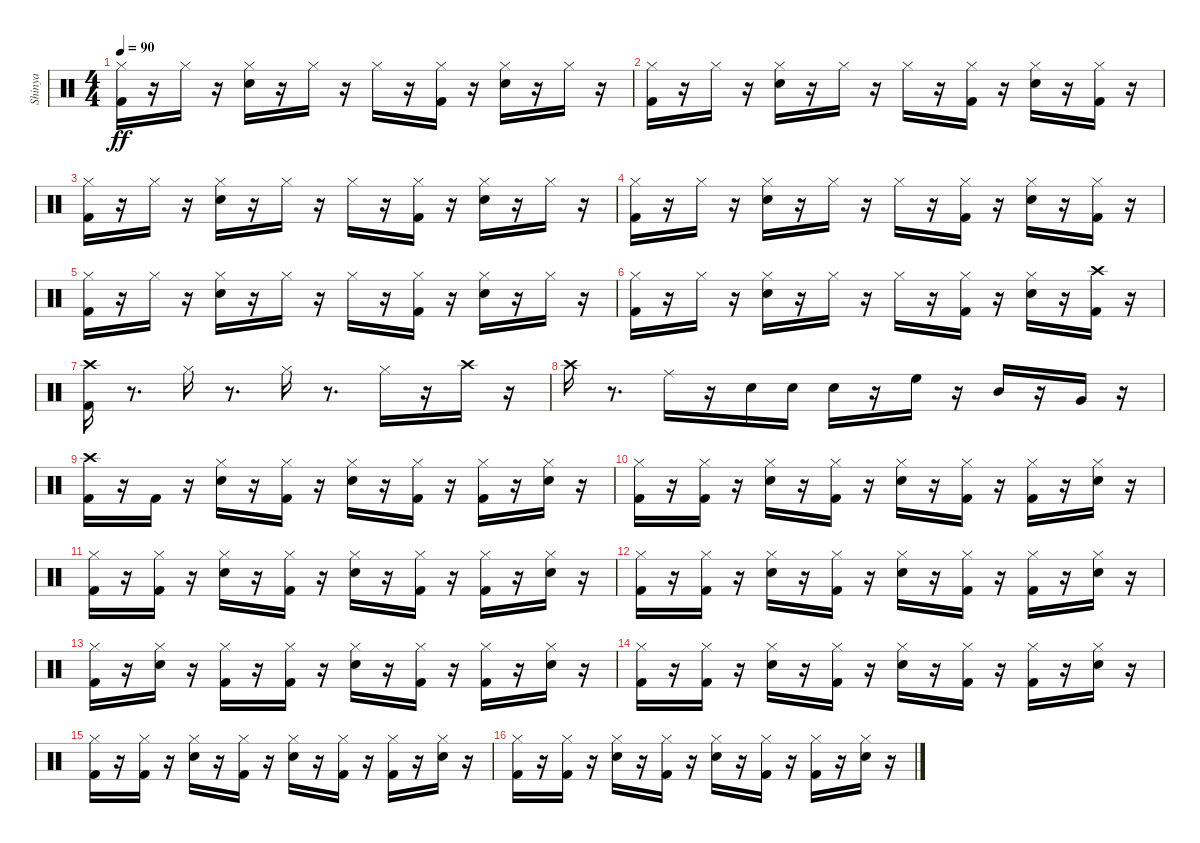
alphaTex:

\track ("Shinya" "Shinya") {instrument percussion}
\staff {score}
\articulation defaults
\ts (4 4)
\tempo 90
\clef neutral
\ks c
("Hi-Hat (closed)" "Kick (hit) 2").16{dy ff} r.16 "Hi-Hat (closed)".16 r.16 ("Snare (hit) 2" "Hi-Hat (closed)").16 r.16 "Hi-Hat (closed)".16 r.16 "Hi-Hat (closed)".16 r.16 ("Hi-Hat (closed)" "Kick (hit) 2").16 r.16 ("Snare (hit) 2" "Hi-Hat (closed)").16 r.16 "Hi-Hat (closed)".16 r.16 |
("Hi-Hat (closed)" "Kick (hit) 2").16 r.16 "Hi-Hat (closed)".16 r.16 ("Snare (hit) 2" "Hi-Hat (closed)").16 r.16 "Hi-Hat (closed)".16 r.16 "Hi-Hat (closed)".16 r.16 ("Hi-Hat (closed)" "Kick (hit) 2").16 r.16 ("Snare (hit) 2" "Hi-Hat (closed)").16 r.16 ("Hi-Hat (closed)" "Kick (hit) 2").16 r.16 |
("Hi-Hat (closed)" "Kick (hit) 2").16 r.16 "Hi-Hat (closed)".16 r.16 ("Snare (hit) 2" "Hi-Hat (closed)").16 r.16 "Hi-Hat (closed)".16 r.16 "Hi-Hat (closed)".16 r.16 ("Hi-Hat (closed)" "Kick (hit) 2").16 r.16 ("Snare (hit) 2" "Hi-Hat (closed)").16 r.16 "Hi-Hat (closed)".16 r.16 |
("Hi-Hat (closed)" "Kick (hit) 2").16 r.16 "Hi-Hat (closed)".16 r.16 ("Snare (hit) 2" "Hi-Hat (closed)").16 r.16 "Hi-Hat (closed)".16 r.16 "Hi-Hat (closed)".16 r.16 ("Hi-Hat (closed)" "Kick (hit) 2").16 r.16 ("Snare (hit) 2" "Hi-Hat (closed)").16 r.16 ("Hi-Hat (closed)" "Kick (hit) 2").16 r.16 |
("Hi-Hat (closed)" "Kick (hit) 2").16 r.16 "Hi-Hat (closed)".16 r.16 ("Snare (hit) 2" "Hi-Hat (closed)").16 r.16 "Hi-Hat (closed)".16 r.16 "Hi-Hat (closed)".16 r.16 ("Hi-Hat (closed)" "Kick (hit) 2").16 r.16 ("Snare (hit) 2" "Hi-Hat (closed)").16 r.16 "Hi-Hat (closed)".16 r.16 |
("Hi-Hat (closed)" "Kick (hit) 2").16 r.16 "Hi-Hat (closed)".16 r.16 ("Snare (hit) 2" "Hi-Hat (closed)").16 r.16 "Hi-Hat (closed)".16 r.16 "Hi-Hat (closed)".16 r.16 ("Hi-Hat (closed)" "Kick (hit) 2").16 r.16 ("Snare (hit) 2" "Hi-Hat (closed)").16 r.16 ("Crash high (hit)" "Kick (hit) 2").16 r.16 |
("Crash high (hit)" "Kick (hit) 2").16 r.8{d} "Hi-Hat (closed)".16 r.8{d} "Hi-Hat (closed)".16 r.8{d} "Hi-Hat (closed)".16 r.16 "Crash high (hit)".16 r.16 |
"Crash high (hit)".16 r.8{d} "Ride (middle)".16 r.16 "Snare (hit) 2".16 "Snare (hit) 2".16 "Snare (hit) 2".16 r.16 "High Floor Tom (hit)".16 r.16 "Mid Tom (hit)".16 r.16 "Very Low Tom (hit)".16 r.16 |
("Crash high (hit)" "Kick (hit) 2").16 r.16 "Kick (hit) 2".16 r.16 ("Snare (hit) 2" "Hi-Hat (closed)").16 r.16 ("Hi-Hat (closed)" "Kick (hit) 2").16 r.16 ("Snare (hit) 2" "Hi-Hat (closed)").16 r.16 ("Hi-Hat (closed)" "Kick (hit) 2").16 r.16 ("Hi-Hat (closed)" "Kick (hit) 2").16 r.16 ("Snare (hit) 2" "Hi-Hat (closed)").16 r.16 |
("Hi-Hat (closed)" "Kick (hit) 2").16 r.16 ("Hi-Hat (closed)" "Kick (hit) 2").16 r.16 ("Snare (hit) 2" "Hi-Hat (closed)").16 r.16 ("Hi-Hat (closed)" "Kick (hit) 2").16 r.16 ("Snare (hit) 2" "Hi-Hat (closed)").16 r.16 ("Hi-Hat (closed)" "Kick (hit) 2").16 r.16 ("Hi-Hat (closed)" "Kick (hit) 2").16 r.16 ("Snare (hit) 2" "Hi-Hat (closed)").16 r.16 |
("Hi-Hat (closed)" "Kick (hit) 2").16 r.16 ("Hi-Hat (closed)" "Kick (hit) 2").16 r.16 ("Snare (hit) 2" "Hi-Hat (closed)").16 r.16 ("Hi-Hat (closed)" "Kick (hit) 2").16 r.16 ("Snare (hit) 2" "Hi-Hat (closed)").16 r.16 ("Hi-Hat (closed)" "Kick (hit) 2").16 r.16 ("Hi-Hat (closed)" "Kick (hit) 2").16 r.16 ("Snare (hit) 2" "Hi-Hat (closed)").16 r.16 |
("Hi-Hat (closed)" "Kick (hit) 2").16 r.16 ("Hi-Hat (closed)" "Kick (hit) 2").16 r.16 ("Snare (hit) 2" "Hi-Hat (closed)").16 r.16 ("Hi-Hat (closed)" "Kick (hit) 2").16 r.16 ("Snare (hit) 2" "Hi-Hat (closed)").16 r.16 ("Hi-Hat (closed)" "Kick (hit) 2").16 r.16 ("Hi-Hat (closed)" "Kick (hit) 2").16 r.16 ("Snare (hit) 2" "Hi-Hat (closed)").16 r.16 |
("Hi-Hat (closed)" "Kick (hit) 2").16 r.16 ("Snare (hit) 2" "Hi-Hat (closed)").16 r.16 ("Hi-Hat (closed)" "Kick (hit) 2").16 r.16 ("Kick (hit) 2" "Hi-Hat (closed)").16 r.16 ("Snare (hit) 2" "Hi-Hat (closed)").16 r.16 ("Hi-Hat (closed)" "Kick (hit) 2").16 r.16 ("Hi-Hat (closed)" "Kick (hit) 2").16 r.16 ("Snare (hit) 2" "Hi-Hat (closed)").16 r.16 |
("Hi-Hat (closed)" "Kick (hit) 2").16 r.16 ("Hi-Hat (closed)" "Kick (hit) 2").16 r.16 ("Snare (hit) 2" "Hi-Hat (closed)").16 r.16 ("Hi-Hat (closed)" "Kick (hit) 2").16 r.16 ("Snare (hit) 2" "Hi-Hat (closed)").16 r.16 ("Hi-Hat (closed)" "Kick (hit) 2").16 r.16 ("Hi-Hat (closed)" "Kick (hit) 2").16 r.16 ("Snare (hit) 2" "Hi-Hat (closed)").16 r.16 |
("Hi-Hat (closed)" "Kick (hit) 2").16 r.16 ("Hi-Hat (closed)" "Kick (hit) 2").16 r.16 ("Snare (hit) 2" "Hi-Hat (closed)").16 r.16 ("Hi-Hat (closed)" "Kick (hit) 2").16 r.16 ("Snare (hit) 2" "Hi-Hat (closed)").16 r.16 ("Hi-Hat (closed)" "Kick (hit) 2").16 r.16 ("Hi-Hat (closed)" "Kick (hit) 2").16 r.16 ("Snare (hit) 2" "Hi-Hat (closed)").16 r.16 |
("Hi-Hat (closed)" "Kick (hit) 2").16 r.16 ("Hi-Hat (closed)" "Kick (hit) 2").16 r.16 ("Snare (hit) 2" "Hi-Hat (closed)").16 r.16 ("Hi-Hat (closed)" "Kick (hit) 2").16 r.16 ("Snare (hit) 2" "Hi-Hat (closed)").16 r.16 ("Hi-Hat (closed)" "Kick (hit) 2").16 r.16 ("Hi-Hat (closed)" "Kick (hit) 2").16 r.16 ("Snare (hit) 2" "Hi-Hat (closed)").16 r.16
